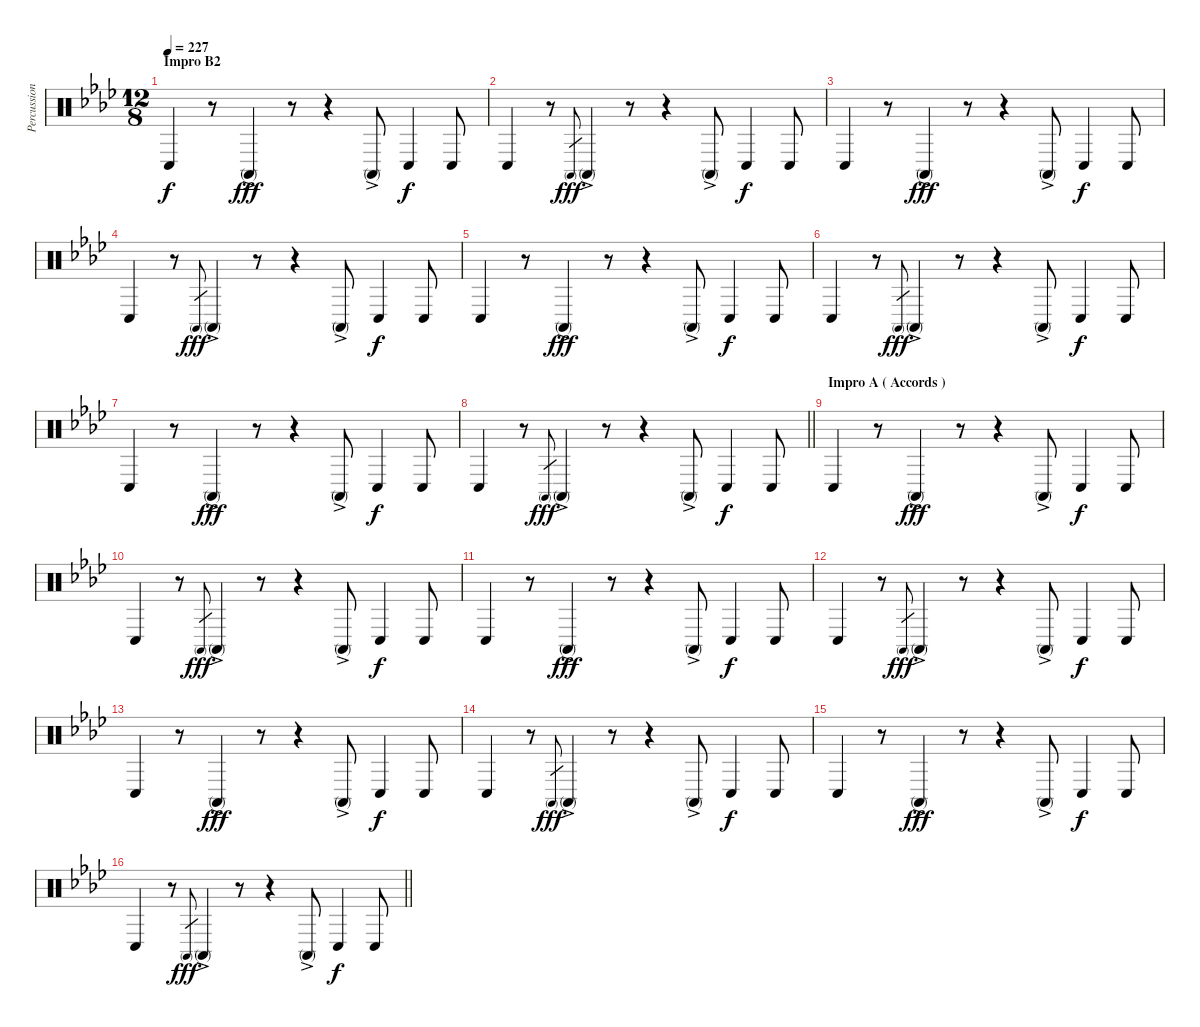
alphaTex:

\track ("Percussions" "Percussion") {instrument percussion}
\staff {score}
\articulation defaults
\ts (12 8)
\section ("" "Impro B2")
\tempo 227
\clef neutral
\ks fminor "Conga low (hit)".4{dy f volume 12 balance 8}
r.8 "Conga high (mute)"{ac}.4{dy fff} r.8 r.4 "Conga high (mute)"{ac}.8 "Conga low (hit)".4{dy f} "Conga low (hit)".8 |
"Conga low (hit)".4 r.8 "Conga high (mute)".8{gr dy fff} "Conga high (mute)"{ac}.4 r.8 r.4 "Conga high (mute)"{ac}.8 "Conga low (hit)".4{dy f} "Conga low (hit)".8 |
"Conga low (hit)".4 r.8 "Conga high (mute)"{ac}.4{dy fff} r.8 r.4 "Conga high (mute)"{ac}.8 "Conga low (hit)".4{dy f} "Conga low (hit)".8 |
"Conga low (hit)".4 r.8 "Conga high (mute)".8{gr dy fff} "Conga high (mute)"{ac}.4 r.8 r.4 "Conga high (mute)"{ac}.8 "Conga low (hit)".4{dy f} "Conga low (hit)".8 |
"Conga low (hit)".4 r.8 "Conga high (mute)"{ac}.4{dy fff} r.8 r.4 "Conga high (mute)"{ac}.8 "Conga low (hit)".4{dy f} "Conga low (hit)".8 |
"Conga low (hit)".4 r.8 "Conga high (mute)".8{gr dy fff} "Conga high (mute)"{ac}.4 r.8 r.4 "Conga high (mute)"{ac}.8 "Conga low (hit)".4{dy f} "Conga low (hit)".8 |
"Conga low (hit)".4 r.8 "Conga high (mute)"{ac}.4{dy fff} r.8 r.4 "Conga high (mute)"{ac}.8 "Conga low (hit)".4{dy f} "Conga low (hit)".8 |
\barLineRight lightlight "Conga low (hit)".4
r.8 "Conga high (mute)".8{gr dy fff} "Conga high (mute)"{ac}.4 r.8 r.4 "Conga high (mute)"{ac}.8 "Conga low (hit)".4{dy f} "Conga low (hit)".8 |
\section ("" "Impro A ( Accords )")
"Conga low (hit)".4{volume 12 balance 8} r.8 "Conga high (mute)"{ac}.4{dy fff} r.8 r.4 "Conga high (mute)"{ac}.8 "Conga low (hit)".4{dy f} "Conga low (hit)".8 |
"Conga low (hit)".4 r.8 "Conga high (mute)".8{gr dy fff} "Conga high (mute)"{ac}.4 r.8 r.4 "Conga high (mute)"{ac}.8 "Conga low (hit)".4{dy f} "Conga low (hit)".8 |
"Conga low (hit)".4 r.8 "Conga high (mute)"{ac}.4{dy fff} r.8 r.4 "Conga high (mute)"{ac}.8 "Conga low (hit)".4{dy f} "Conga low (hit)".8 |
"Conga low (hit)".4 r.8 "Conga high (mute)".8{gr dy fff} "Conga high (mute)"{ac}.4 r.8 r.4 "Conga high (mute)"{ac}.8 "Conga low (hit)".4{dy f} "Conga low (hit)".8 |
"Conga low (hit)".4 r.8 "Conga high (mute)"{ac}.4{dy fff} r.8 r.4 "Conga high (mute)"{ac}.8 "Conga low (hit)".4{dy f} "Conga low (hit)".8 |
"Conga low (hit)".4 r.8 "Conga high (mute)".8{gr dy fff} "Conga high (mute)"{ac}.4 r.8 r.4 "Conga high (mute)"{ac}.8 "Conga low (hit)".4{dy f} "Conga low (hit)".8 |
"Conga low (hit)".4 r.8 "Conga high (mute)"{ac}.4{dy fff} r.8 r.4 "Conga high (mute)"{ac}.8 "Conga low (hit)".4{dy f} "Conga low (hit)".8 |
\barLineRight lightlight "Conga low (hit)".4
r.8 "Conga high (mute)".8{gr dy fff} "Conga high (mute)"{ac}.4 r.8 r.4 "Conga high (mute)"{ac}.8 "Conga low (hit)".4{dy f} "Conga low (hit)".8
